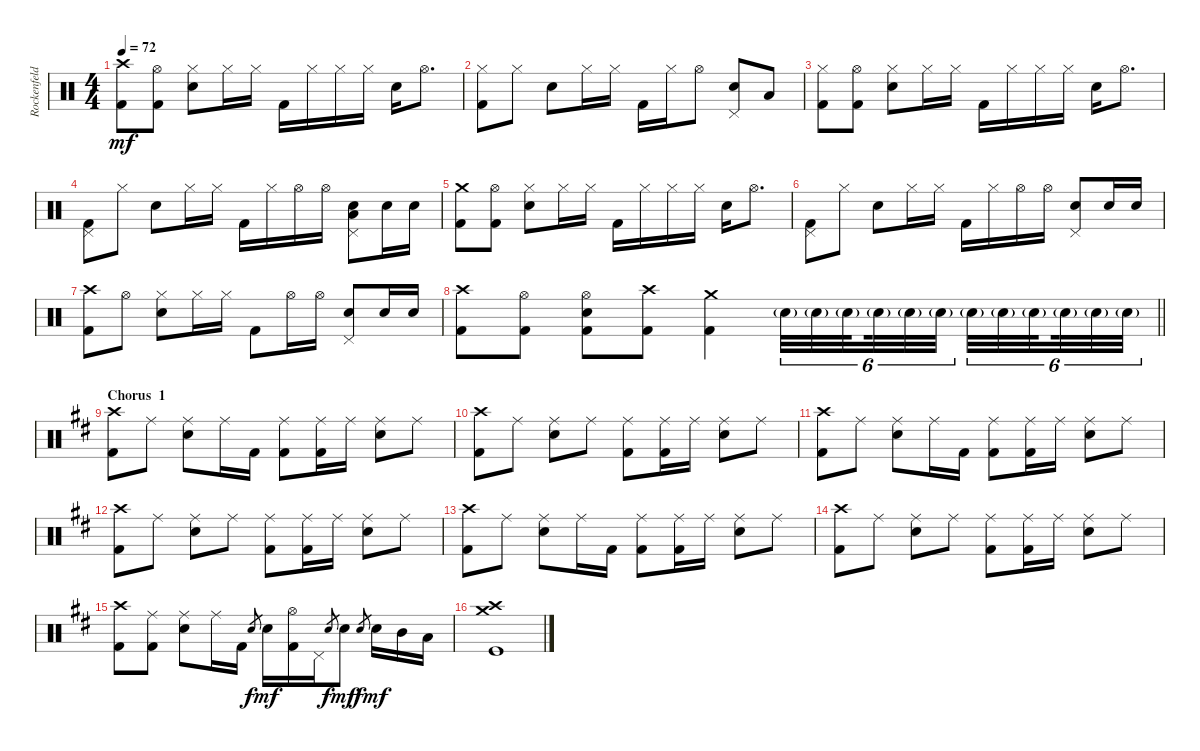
\track ("Rockenfeld" "Rockenfeld") {instrument percussion}
\staff {score}
\articulation defaults
\ts (4 4)
\tempo 72
\clef neutral
\ks c
("Crash high (hit)" "Kick (hit) 2").8{dy mf} ("Hi-Hat (open)" "Kick (hit) 2").8 ("Hi-Hat (closed)" "Electric Snare (hit)").8 "Hi-Hat (closed)".16 "Hi-Hat (closed)".16 "Kick (hit) 2".16 "Hi-Hat (closed)".16 "Hi-Hat (closed)".16 "Hi-Hat (closed)".16 "Electric Snare (hit)".16 "Hi-Hat (open)".8{d} |
("Hi-Hat (closed)" "Kick (hit) 2").8 "Hi-Hat (closed)".8 "Electric Snare (hit)".8 "Hi-Hat (closed)".16 "Hi-Hat (closed)".16 "Kick (hit) 2".16 "Hi-Hat (closed)".16 "Hi-Hat (open)".8 ("Electric Snare (hit)" "Pedal Hi-Hat (hit)").8 "Low Floor Tom (hit)".8 |
("Hi-Hat (closed)" "Kick (hit) 2").8 ("Hi-Hat (open)" "Kick (hit) 2").8 ("Hi-Hat (closed)" "Electric Snare (hit)").8 "Hi-Hat (closed)".16 "Hi-Hat (closed)".16 "Kick (hit) 2".16 "Hi-Hat (closed)".16 "Hi-Hat (closed)".16 "Hi-Hat (closed)".16 "Electric Snare (hit)".16 "Hi-Hat (open)".8{d} |
("Pedal Hi-Hat (hit)" "Kick (hit) 2").8 "Hi-Hat (closed)".8 "Electric Snare (hit)".8 "Hi-Hat (closed)".16 "Hi-Hat (closed)".16 "Kick (hit) 2".16 "Hi-Hat (closed)".16 "Hi-Hat (open)".16 "Hi-Hat (open)".16 ("Low Floor Tom (hit)" "Electric Snare (hit)" "Pedal Hi-Hat (hit)").8 "Electric Snare (hit)".16 "Electric Snare (hit)".16 |
("Crash medium (hit)" "Kick (hit) 2").8 ("Hi-Hat (open)" "Kick (hit) 2").8 ("Hi-Hat (closed)" "Electric Snare (hit)").8 "Hi-Hat (closed)".16 "Hi-Hat (closed)".16 "Kick (hit) 2".16 "Hi-Hat (closed)".16 "Hi-Hat (closed)".16 "Hi-Hat (closed)".16 "Electric Snare (hit)".16 "Hi-Hat (open)".8{d} |
("Pedal Hi-Hat (hit)" "Kick (hit) 2").8 "Hi-Hat (closed)".8 "Electric Snare (hit)".8 "Hi-Hat (closed)".16 "Hi-Hat (closed)".16 "Kick (hit) 2".16 "Hi-Hat (closed)".16 "Hi-Hat (open)".16 "Hi-Hat (open)".16 ("Electric Snare (hit)" "Pedal Hi-Hat (hit)").8 "Electric Snare (hit)".16 "Electric Snare (hit)".16 |
("Crash high (hit)" "Kick (hit) 2").8 "Hi-Hat (open)".8 ("Hi-Hat (closed)" "Electric Snare (hit)").8 "Hi-Hat (closed)".16 "Hi-Hat (closed)".16 "Kick (hit) 2".8 "Hi-Hat (open)".16 "Hi-Hat (open)".16 ("Electric Snare (hit)" "Pedal Hi-Hat (hit)").8 "Electric Snare (hit)".16 "Electric Snare (hit)".16 |
\barLineRight lightlight
("Crash high (hit)" "Kick (hit) 2").8 ("Hi-Hat (open)" "Kick (hit) 2").8 ("Hi-Hat (open)" "Electric Snare (hit)" "Kick (hit) 2").8 ("Crash high (hit)" "Kick (hit) 2").8 ("Crash medium (hit)" "Kick (hit) 2").4 "Electric Snare (hit)"{g}.32{tu (6 4)} "Electric Snare (hit)"{g}.32{tu (6 4)} "Electric Snare (hit)"{g}.32{tu (6 4) beam splitsecondary} "Electric Snare (hit)"{g}.32{tu (6 4)} "Electric Snare (hit)"{g}.32{tu (6 4)} "Electric Snare (hit)"{g}.32{tu (6 4) beam splitsecondary} "Electric Snare (hit)"{g}.32{tu (6 4)} "Electric Snare (hit)"{g}.32{tu (6 4)} "Electric Snare (hit)"{g}.32{tu (6 4) beam splitsecondary} "Electric Snare (hit)"{g}.32{tu (6 4)} "Electric Snare (hit)"{g}.32{tu (6 4)} "Electric Snare (hit)"{g}.32{tu (6 4)} |
\section ("" "Chorus  1")
\ks d
("Crash high (hit)" "Kick (hit) 2").8 "Ride (middle)".8 ("Ride (middle)" "Electric Snare (hit)").8 "Ride (middle)".16 "Kick (hit) 2".16 ("Ride (middle)" "Kick (hit) 2").8 ("Ride (middle)" "Kick (hit) 2").16 "Ride (middle)".16 ("Ride (middle)" "Electric Snare (hit)").8 "Ride (middle)".8 |
("Crash high (hit)" "Kick (hit) 2").8 "Ride (middle)".8 ("Ride (middle)" "Electric Snare (hit)").8 "Ride (middle)".8 ("Ride (middle)" "Kick (hit) 2").8 ("Ride (middle)" "Kick (hit) 2").16 "Ride (middle)".16 ("Ride (middle)" "Electric Snare (hit)").8 "Ride (middle)".8 |
("Crash high (hit)" "Kick (hit) 2").8 "Ride (middle)".8 ("Ride (middle)" "Electric Snare (hit)").8 "Ride (middle)".16 "Kick (hit) 2".16 ("Ride (middle)" "Kick (hit) 2").8 ("Ride (middle)" "Kick (hit) 2").16 "Ride (middle)".16 ("Ride (middle)" "Electric Snare (hit)").8 "Ride (middle)".8 |
("Crash high (hit)" "Kick (hit) 2").8 "Ride (middle)".8 ("Ride (middle)" "Electric Snare (hit)").8 "Ride (middle)".8 ("Ride (middle)" "Kick (hit) 2").8 ("Ride (middle)" "Kick (hit) 2").16 "Ride (middle)".16 ("Ride (middle)" "Electric Snare (hit)").8 "Ride (middle)".8 |
("Crash high (hit)" "Kick (hit) 2").8 "Ride (middle)".8 ("Ride (middle)" "Electric Snare (hit)").8 "Ride (middle)".16 "Kick (hit) 2".16 ("Ride (middle)" "Kick (hit) 2").8 ("Ride (middle)" "Kick (hit) 2").16 "Ride (middle)".16 ("Ride (middle)" "Electric Snare (hit)").8 "Ride (middle)".8 |
("Crash high (hit)" "Kick (hit) 2").8 "Ride (middle)".8 ("Ride (middle)" "Electric Snare (hit)").8 "Ride (middle)".8 ("Ride (middle)" "Kick (hit) 2").8 ("Ride (middle)" "Kick (hit) 2").16 "Ride (middle)".16 ("Ride (middle)" "Electric Snare (hit)").8 "Ride (middle)".8 |
("Crash high (hit)" "Kick (hit) 2").8 ("Ride (middle)" "Kick (hit) 2").8 ("Ride (middle)" "Electric Snare (hit)").8 "Ride (middle)".16 "Kick (hit) 2".16 "Electric Snare (hit)".8{gr dy f} "Electric Snare (hit)".16{dy mf} ("Hi-Hat (open)" "Kick (hit) 2").16 "Pedal Hi-Hat (hit)".16 "Electric Snare (hit)".8{gr dy f} "Electric Snare (hit)".8{dy mf} "Electric Snare (hit)".8{gr dy f} "Electric Snare (hit)".16{dy mf} "Mid Tom (hit)".16 "Low Tom (hit)".16 |
("Crash high (hit)" "Crash medium (hit)" "Kick (hit)").1
